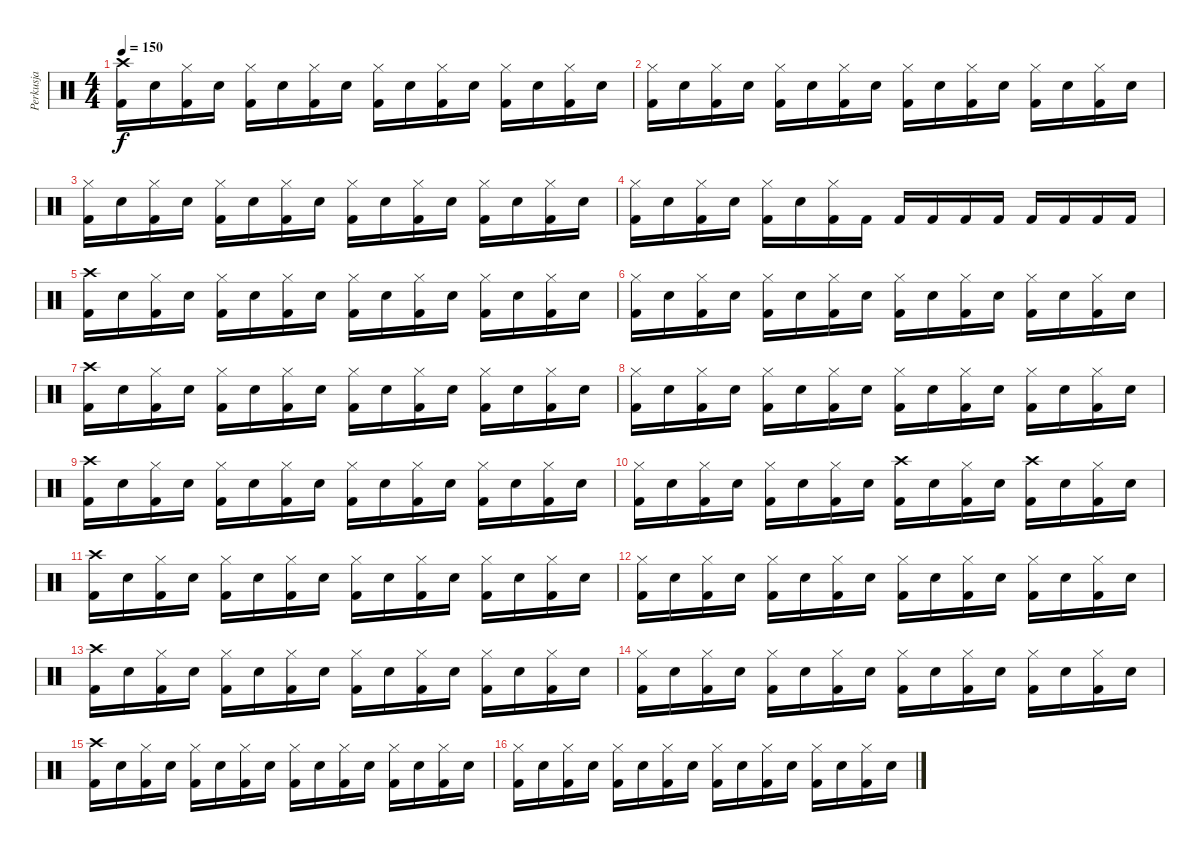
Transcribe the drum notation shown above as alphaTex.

\track ("Perkusja" "Perkusja") {instrument percussion}
\staff {score}
\articulation defaults
\ts (4 4)
\tempo 150
\clef neutral
\ks c
("Crash high (hit)" "Kick (hit) 2").16{dy f} "Snare (hit) 2".16 ("Hi-Hat (closed)" "Kick (hit) 2").16 "Snare (hit) 2".16 ("Hi-Hat (closed)" "Kick (hit) 2").16 "Snare (hit) 2".16 ("Hi-Hat (closed)" "Kick (hit) 2").16 "Snare (hit) 2".16 ("Hi-Hat (closed)" "Kick (hit) 2").16 "Snare (hit) 2".16 ("Hi-Hat (closed)" "Kick (hit) 2").16 "Snare (hit) 2".16 ("Hi-Hat (closed)" "Kick (hit) 2").16 "Snare (hit) 2".16 ("Hi-Hat (closed)" "Kick (hit) 2").16 "Snare (hit) 2".16 |
("Hi-Hat (closed)" "Kick (hit) 2").16 "Snare (hit) 2".16 ("Hi-Hat (closed)" "Kick (hit) 2").16 "Snare (hit) 2".16 ("Hi-Hat (closed)" "Kick (hit) 2").16 "Snare (hit) 2".16 ("Hi-Hat (closed)" "Kick (hit) 2").16 "Snare (hit) 2".16 ("Hi-Hat (closed)" "Kick (hit) 2").16 "Snare (hit) 2".16 ("Hi-Hat (closed)" "Kick (hit) 2").16 "Snare (hit) 2".16 ("Hi-Hat (closed)" "Kick (hit) 2").16 "Snare (hit) 2".16 ("Hi-Hat (closed)" "Kick (hit) 2").16 "Snare (hit) 2".16 |
("Hi-Hat (closed)" "Kick (hit) 2").16 "Snare (hit) 2".16 ("Hi-Hat (closed)" "Kick (hit) 2").16 "Snare (hit) 2".16 ("Hi-Hat (closed)" "Kick (hit) 2").16 "Snare (hit) 2".16 ("Hi-Hat (closed)" "Kick (hit) 2").16 "Snare (hit) 2".16 ("Hi-Hat (closed)" "Kick (hit) 2").16 "Snare (hit) 2".16 ("Hi-Hat (closed)" "Kick (hit) 2").16 "Snare (hit) 2".16 ("Hi-Hat (closed)" "Kick (hit) 2").16 "Snare (hit) 2".16 ("Hi-Hat (closed)" "Kick (hit) 2").16 "Snare (hit) 2".16 |
("Hi-Hat (closed)" "Kick (hit) 2").16 "Snare (hit) 2".16 ("Hi-Hat (closed)" "Kick (hit) 2").16 "Snare (hit) 2".16 ("Hi-Hat (closed)" "Kick (hit) 2").16 "Snare (hit) 2".16 ("Hi-Hat (closed)" "Kick (hit) 2").16 "Kick (hit) 2".16 "Kick (hit) 2".16 "Kick (hit) 2".16 "Kick (hit) 2".16 "Kick (hit) 2".16 "Kick (hit) 2".16 "Kick (hit) 2".16 "Kick (hit) 2".16 "Kick (hit) 2".16 |
("Crash high (hit)" "Kick (hit) 2").16 "Snare (hit) 2".16 ("Hi-Hat (closed)" "Kick (hit) 2").16 "Snare (hit) 2".16 ("Hi-Hat (closed)" "Kick (hit) 2").16 "Snare (hit) 2".16 ("Hi-Hat (closed)" "Kick (hit) 2").16 "Snare (hit) 2".16 ("Hi-Hat (closed)" "Kick (hit) 2").16 "Snare (hit) 2".16 ("Hi-Hat (closed)" "Kick (hit) 2").16 "Snare (hit) 2".16 ("Hi-Hat (closed)" "Kick (hit) 2").16 "Snare (hit) 2".16 ("Hi-Hat (closed)" "Kick (hit) 2").16 "Snare (hit) 2".16 |
("Hi-Hat (closed)" "Kick (hit) 2").16 "Snare (hit) 2".16 ("Hi-Hat (closed)" "Kick (hit) 2").16 "Snare (hit) 2".16 ("Hi-Hat (closed)" "Kick (hit) 2").16 "Snare (hit) 2".16 ("Hi-Hat (closed)" "Kick (hit) 2").16 "Snare (hit) 2".16 ("Hi-Hat (closed)" "Kick (hit) 2").16 "Snare (hit) 2".16 ("Hi-Hat (closed)" "Kick (hit) 2").16 "Snare (hit) 2".16 ("Hi-Hat (closed)" "Kick (hit) 2").16 "Snare (hit) 2".16 ("Hi-Hat (closed)" "Kick (hit) 2").16 "Snare (hit) 2".16 |
("Crash high (hit)" "Kick (hit) 2").16 "Snare (hit) 2".16 ("Hi-Hat (closed)" "Kick (hit) 2").16 "Snare (hit) 2".16 ("Hi-Hat (closed)" "Kick (hit) 2").16 "Snare (hit) 2".16 ("Hi-Hat (closed)" "Kick (hit) 2").16 "Snare (hit) 2".16 ("Hi-Hat (closed)" "Kick (hit) 2").16 "Snare (hit) 2".16 ("Hi-Hat (closed)" "Kick (hit) 2").16 "Snare (hit) 2".16 ("Hi-Hat (closed)" "Kick (hit) 2").16 "Snare (hit) 2".16 ("Hi-Hat (closed)" "Kick (hit) 2").16 "Snare (hit) 2".16 |
("Hi-Hat (closed)" "Kick (hit) 2").16 "Snare (hit) 2".16 ("Hi-Hat (closed)" "Kick (hit) 2").16 "Snare (hit) 2".16 ("Hi-Hat (closed)" "Kick (hit) 2").16 "Snare (hit) 2".16 ("Hi-Hat (closed)" "Kick (hit) 2").16 "Snare (hit) 2".16 ("Hi-Hat (closed)" "Kick (hit) 2").16 "Snare (hit) 2".16 ("Hi-Hat (closed)" "Kick (hit) 2").16 "Snare (hit) 2".16 ("Hi-Hat (closed)" "Kick (hit) 2").16 "Snare (hit) 2".16 ("Hi-Hat (closed)" "Kick (hit) 2").16 "Snare (hit) 2".16 |
("Crash high (hit)" "Kick (hit) 2").16 "Snare (hit) 2".16 ("Hi-Hat (closed)" "Kick (hit) 2").16 "Snare (hit) 2".16 ("Hi-Hat (closed)" "Kick (hit) 2").16 "Snare (hit) 2".16 ("Hi-Hat (closed)" "Kick (hit) 2").16 "Snare (hit) 2".16 ("Hi-Hat (closed)" "Kick (hit) 2").16 "Snare (hit) 2".16 ("Hi-Hat (closed)" "Kick (hit) 2").16 "Snare (hit) 2".16 ("Hi-Hat (closed)" "Kick (hit) 2").16 "Snare (hit) 2".16 ("Hi-Hat (closed)" "Kick (hit) 2").16 "Snare (hit) 2".16 |
("Hi-Hat (closed)" "Kick (hit) 2").16 "Snare (hit) 2".16 ("Hi-Hat (closed)" "Kick (hit) 2").16 "Snare (hit) 2".16 ("Hi-Hat (closed)" "Kick (hit) 2").16 "Snare (hit) 2".16 ("Hi-Hat (closed)" "Kick (hit) 2").16 "Snare (hit) 2".16 ("Crash high (hit)" "Kick (hit) 2").16 "Snare (hit) 2".16 ("Hi-Hat (closed)" "Kick (hit) 2").16 "Snare (hit) 2".16 ("Crash high (hit)" "Kick (hit) 2").16 "Snare (hit) 2".16 ("Hi-Hat (closed)" "Kick (hit) 2").16 "Snare (hit) 2".16 |
("Crash high (hit)" "Kick (hit) 2").16 "Snare (hit) 2".16 ("Hi-Hat (closed)" "Kick (hit) 2").16 "Snare (hit) 2".16 ("Hi-Hat (closed)" "Kick (hit) 2").16 "Snare (hit) 2".16 ("Hi-Hat (closed)" "Kick (hit) 2").16 "Snare (hit) 2".16 ("Hi-Hat (closed)" "Kick (hit) 2").16 "Snare (hit) 2".16 ("Hi-Hat (closed)" "Kick (hit) 2").16 "Snare (hit) 2".16 ("Hi-Hat (closed)" "Kick (hit) 2").16 "Snare (hit) 2".16 ("Hi-Hat (closed)" "Kick (hit) 2").16 "Snare (hit) 2".16 |
("Hi-Hat (closed)" "Kick (hit) 2").16 "Snare (hit) 2".16 ("Hi-Hat (closed)" "Kick (hit) 2").16 "Snare (hit) 2".16 ("Hi-Hat (closed)" "Kick (hit) 2").16 "Snare (hit) 2".16 ("Hi-Hat (closed)" "Kick (hit) 2").16 "Snare (hit) 2".16 ("Hi-Hat (closed)" "Kick (hit) 2").16 "Snare (hit) 2".16 ("Hi-Hat (closed)" "Kick (hit) 2").16 "Snare (hit) 2".16 ("Hi-Hat (closed)" "Kick (hit) 2").16 "Snare (hit) 2".16 ("Hi-Hat (closed)" "Kick (hit) 2").16 "Snare (hit) 2".16 |
("Crash high (hit)" "Kick (hit) 2").16 "Snare (hit) 2".16 ("Hi-Hat (closed)" "Kick (hit) 2").16 "Snare (hit) 2".16 ("Hi-Hat (closed)" "Kick (hit) 2").16 "Snare (hit) 2".16 ("Hi-Hat (closed)" "Kick (hit) 2").16 "Snare (hit) 2".16 ("Hi-Hat (closed)" "Kick (hit) 2").16 "Snare (hit) 2".16 ("Hi-Hat (closed)" "Kick (hit) 2").16 "Snare (hit) 2".16 ("Hi-Hat (closed)" "Kick (hit) 2").16 "Snare (hit) 2".16 ("Hi-Hat (closed)" "Kick (hit) 2").16 "Snare (hit) 2".16 |
("Hi-Hat (closed)" "Kick (hit) 2").16 "Snare (hit) 2".16 ("Hi-Hat (closed)" "Kick (hit) 2").16 "Snare (hit) 2".16 ("Hi-Hat (closed)" "Kick (hit) 2").16 "Snare (hit) 2".16 ("Hi-Hat (closed)" "Kick (hit) 2").16 "Snare (hit) 2".16 ("Hi-Hat (closed)" "Kick (hit) 2").16 "Snare (hit) 2".16 ("Hi-Hat (closed)" "Kick (hit) 2").16 "Snare (hit) 2".16 ("Hi-Hat (closed)" "Kick (hit) 2").16 "Snare (hit) 2".16 ("Hi-Hat (closed)" "Kick (hit) 2").16 "Snare (hit) 2".16 |
("Crash high (hit)" "Kick (hit) 2").16 "Snare (hit) 2".16 ("Hi-Hat (closed)" "Kick (hit) 2").16 "Snare (hit) 2".16 ("Hi-Hat (closed)" "Kick (hit) 2").16 "Snare (hit) 2".16 ("Hi-Hat (closed)" "Kick (hit) 2").16 "Snare (hit) 2".16 ("Hi-Hat (closed)" "Kick (hit) 2").16 "Snare (hit) 2".16 ("Hi-Hat (closed)" "Kick (hit) 2").16 "Snare (hit) 2".16 ("Hi-Hat (closed)" "Kick (hit) 2").16 "Snare (hit) 2".16 ("Hi-Hat (closed)" "Kick (hit) 2").16 "Snare (hit) 2".16 |
("Hi-Hat (closed)" "Kick (hit) 2").16 "Snare (hit) 2".16 ("Hi-Hat (closed)" "Kick (hit) 2").16 "Snare (hit) 2".16 ("Hi-Hat (closed)" "Kick (hit) 2").16 "Snare (hit) 2".16 ("Hi-Hat (closed)" "Kick (hit) 2").16 "Snare (hit) 2".16 ("Hi-Hat (closed)" "Kick (hit) 2").16 "Snare (hit) 2".16 ("Hi-Hat (closed)" "Kick (hit) 2").16 "Snare (hit) 2".16 ("Hi-Hat (closed)" "Kick (hit) 2").16 "Snare (hit) 2".16 ("Hi-Hat (closed)" "Kick (hit) 2").16 "Snare (hit) 2".16
